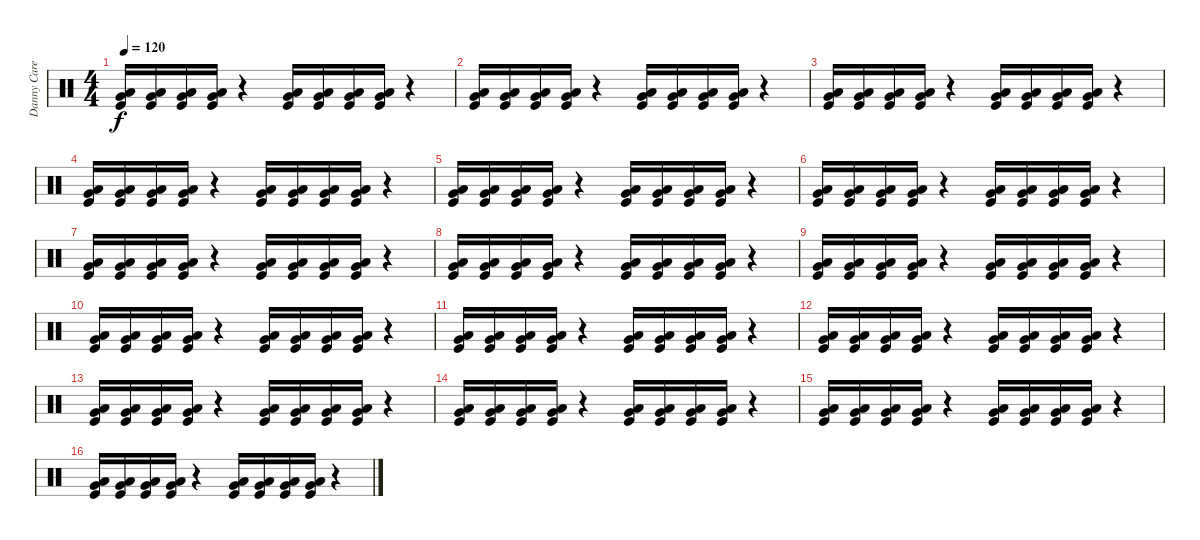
\track ("Danny Carey" "Danny Care") {instrument percussion}
\staff {score}
\articulation defaults
\ts (4 4)
\tempo 120
\clef neutral
\ks c
("Very Low Tom (hit)" "Low Floor Tom (hit)" "Kick (hit)").16{dy f} ("Very Low Tom (hit)" "Low Floor Tom (hit)" "Kick (hit)").16 ("Very Low Tom (hit)" "Low Floor Tom (hit)" "Kick (hit)").16 ("Very Low Tom (hit)" "Low Floor Tom (hit)" "Kick (hit)").16 r.4 ("Very Low Tom (hit)" "Low Floor Tom (hit)" "Kick (hit)").16 ("Very Low Tom (hit)" "Low Floor Tom (hit)" "Kick (hit)").16 ("Very Low Tom (hit)" "Low Floor Tom (hit)" "Kick (hit)").16 ("Very Low Tom (hit)" "Low Floor Tom (hit)" "Kick (hit)").16 r.4 |
("Very Low Tom (hit)" "Low Floor Tom (hit)" "Kick (hit)").16 ("Very Low Tom (hit)" "Low Floor Tom (hit)" "Kick (hit)").16 ("Very Low Tom (hit)" "Low Floor Tom (hit)" "Kick (hit)").16 ("Very Low Tom (hit)" "Low Floor Tom (hit)" "Kick (hit)").16 r.4 ("Very Low Tom (hit)" "Low Floor Tom (hit)" "Kick (hit)").16 ("Very Low Tom (hit)" "Low Floor Tom (hit)" "Kick (hit)").16 ("Very Low Tom (hit)" "Low Floor Tom (hit)" "Kick (hit)").16 ("Very Low Tom (hit)" "Low Floor Tom (hit)" "Kick (hit)").16 r.4 |
("Very Low Tom (hit)" "Low Floor Tom (hit)" "Kick (hit)").16{volume 6} ("Very Low Tom (hit)" "Low Floor Tom (hit)" "Kick (hit)").16 ("Very Low Tom (hit)" "Low Floor Tom (hit)" "Kick (hit)").16 ("Very Low Tom (hit)" "Low Floor Tom (hit)" "Kick (hit)").16 r.4 ("Very Low Tom (hit)" "Low Floor Tom (hit)" "Kick (hit)").16 ("Very Low Tom (hit)" "Low Floor Tom (hit)" "Kick (hit)").16 ("Very Low Tom (hit)" "Low Floor Tom (hit)" "Kick (hit)").16 ("Very Low Tom (hit)" "Low Floor Tom (hit)" "Kick (hit)").16 r.4 |
("Very Low Tom (hit)" "Low Floor Tom (hit)" "Kick (hit)").16 ("Very Low Tom (hit)" "Low Floor Tom (hit)" "Kick (hit)").16 ("Very Low Tom (hit)" "Low Floor Tom (hit)" "Kick (hit)").16 ("Very Low Tom (hit)" "Low Floor Tom (hit)" "Kick (hit)").16 r.4 ("Very Low Tom (hit)" "Low Floor Tom (hit)" "Kick (hit)").16 ("Very Low Tom (hit)" "Low Floor Tom (hit)" "Kick (hit)").16 ("Very Low Tom (hit)" "Low Floor Tom (hit)" "Kick (hit)").16 ("Very Low Tom (hit)" "Low Floor Tom (hit)" "Kick (hit)").16 r.4 |
("Very Low Tom (hit)" "Low Floor Tom (hit)" "Kick (hit)").16 ("Very Low Tom (hit)" "Low Floor Tom (hit)" "Kick (hit)").16 ("Very Low Tom (hit)" "Low Floor Tom (hit)" "Kick (hit)").16 ("Very Low Tom (hit)" "Low Floor Tom (hit)" "Kick (hit)").16 r.4 ("Very Low Tom (hit)" "Low Floor Tom (hit)" "Kick (hit)").16 ("Very Low Tom (hit)" "Low Floor Tom (hit)" "Kick (hit)").16 ("Very Low Tom (hit)" "Low Floor Tom (hit)" "Kick (hit)").16 ("Very Low Tom (hit)" "Low Floor Tom (hit)" "Kick (hit)").16 r.4 |
("Very Low Tom (hit)" "Low Floor Tom (hit)" "Kick (hit)").16 ("Very Low Tom (hit)" "Low Floor Tom (hit)" "Kick (hit)").16 ("Very Low Tom (hit)" "Low Floor Tom (hit)" "Kick (hit)").16 ("Very Low Tom (hit)" "Low Floor Tom (hit)" "Kick (hit)").16 r.4 ("Very Low Tom (hit)" "Low Floor Tom (hit)" "Kick (hit)").16 ("Very Low Tom (hit)" "Low Floor Tom (hit)" "Kick (hit)").16 ("Very Low Tom (hit)" "Low Floor Tom (hit)" "Kick (hit)").16 ("Very Low Tom (hit)" "Low Floor Tom (hit)" "Kick (hit)").16 r.4 |
("Very Low Tom (hit)" "Low Floor Tom (hit)" "Kick (hit)").16{volume 7} ("Very Low Tom (hit)" "Low Floor Tom (hit)" "Kick (hit)").16 ("Very Low Tom (hit)" "Low Floor Tom (hit)" "Kick (hit)").16 ("Very Low Tom (hit)" "Low Floor Tom (hit)" "Kick (hit)").16 r.4 ("Very Low Tom (hit)" "Low Floor Tom (hit)" "Kick (hit)").16 ("Very Low Tom (hit)" "Low Floor Tom (hit)" "Kick (hit)").16 ("Very Low Tom (hit)" "Low Floor Tom (hit)" "Kick (hit)").16 ("Very Low Tom (hit)" "Low Floor Tom (hit)" "Kick (hit)").16 r.4 |
("Very Low Tom (hit)" "Low Floor Tom (hit)" "Kick (hit)").16 ("Very Low Tom (hit)" "Low Floor Tom (hit)" "Kick (hit)").16 ("Very Low Tom (hit)" "Low Floor Tom (hit)" "Kick (hit)").16 ("Very Low Tom (hit)" "Low Floor Tom (hit)" "Kick (hit)").16 r.4 ("Very Low Tom (hit)" "Low Floor Tom (hit)" "Kick (hit)").16 ("Very Low Tom (hit)" "Low Floor Tom (hit)" "Kick (hit)").16 ("Very Low Tom (hit)" "Low Floor Tom (hit)" "Kick (hit)").16 ("Very Low Tom (hit)" "Low Floor Tom (hit)" "Kick (hit)").16 r.4 |
("Very Low Tom (hit)" "Low Floor Tom (hit)" "Kick (hit)").16 ("Very Low Tom (hit)" "Low Floor Tom (hit)" "Kick (hit)").16 ("Very Low Tom (hit)" "Low Floor Tom (hit)" "Kick (hit)").16 ("Very Low Tom (hit)" "Low Floor Tom (hit)" "Kick (hit)").16 r.4 ("Very Low Tom (hit)" "Low Floor Tom (hit)" "Kick (hit)").16 ("Very Low Tom (hit)" "Low Floor Tom (hit)" "Kick (hit)").16 ("Very Low Tom (hit)" "Low Floor Tom (hit)" "Kick (hit)").16 ("Very Low Tom (hit)" "Low Floor Tom (hit)" "Kick (hit)").16 r.4 |
("Very Low Tom (hit)" "Low Floor Tom (hit)" "Kick (hit)").16 ("Very Low Tom (hit)" "Low Floor Tom (hit)" "Kick (hit)").16 ("Very Low Tom (hit)" "Low Floor Tom (hit)" "Kick (hit)").16 ("Very Low Tom (hit)" "Low Floor Tom (hit)" "Kick (hit)").16 r.4 ("Very Low Tom (hit)" "Low Floor Tom (hit)" "Kick (hit)").16 ("Very Low Tom (hit)" "Low Floor Tom (hit)" "Kick (hit)").16 ("Very Low Tom (hit)" "Low Floor Tom (hit)" "Kick (hit)").16 ("Very Low Tom (hit)" "Low Floor Tom (hit)" "Kick (hit)").16 r.4 |
("Very Low Tom (hit)" "Low Floor Tom (hit)" "Kick (hit)").16{volume 8} ("Very Low Tom (hit)" "Low Floor Tom (hit)" "Kick (hit)").16 ("Very Low Tom (hit)" "Low Floor Tom (hit)" "Kick (hit)").16 ("Very Low Tom (hit)" "Low Floor Tom (hit)" "Kick (hit)").16 r.4 ("Very Low Tom (hit)" "Low Floor Tom (hit)" "Kick (hit)").16 ("Very Low Tom (hit)" "Low Floor Tom (hit)" "Kick (hit)").16 ("Very Low Tom (hit)" "Low Floor Tom (hit)" "Kick (hit)").16 ("Very Low Tom (hit)" "Low Floor Tom (hit)" "Kick (hit)").16 r.4 |
("Very Low Tom (hit)" "Low Floor Tom (hit)" "Kick (hit)").16 ("Very Low Tom (hit)" "Low Floor Tom (hit)" "Kick (hit)").16 ("Very Low Tom (hit)" "Low Floor Tom (hit)" "Kick (hit)").16 ("Very Low Tom (hit)" "Low Floor Tom (hit)" "Kick (hit)").16 r.4 ("Very Low Tom (hit)" "Low Floor Tom (hit)" "Kick (hit)").16 ("Very Low Tom (hit)" "Low Floor Tom (hit)" "Kick (hit)").16 ("Very Low Tom (hit)" "Low Floor Tom (hit)" "Kick (hit)").16 ("Very Low Tom (hit)" "Low Floor Tom (hit)" "Kick (hit)").16 r.4 |
("Very Low Tom (hit)" "Low Floor Tom (hit)" "Kick (hit)").16 ("Very Low Tom (hit)" "Low Floor Tom (hit)" "Kick (hit)").16 ("Very Low Tom (hit)" "Low Floor Tom (hit)" "Kick (hit)").16 ("Very Low Tom (hit)" "Low Floor Tom (hit)" "Kick (hit)").16 r.4 ("Very Low Tom (hit)" "Low Floor Tom (hit)" "Kick (hit)").16 ("Very Low Tom (hit)" "Low Floor Tom (hit)" "Kick (hit)").16 ("Very Low Tom (hit)" "Low Floor Tom (hit)" "Kick (hit)").16 ("Very Low Tom (hit)" "Low Floor Tom (hit)" "Kick (hit)").16 r.4 |
("Very Low Tom (hit)" "Low Floor Tom (hit)" "Kick (hit)").16 ("Very Low Tom (hit)" "Low Floor Tom (hit)" "Kick (hit)").16 ("Very Low Tom (hit)" "Low Floor Tom (hit)" "Kick (hit)").16 ("Very Low Tom (hit)" "Low Floor Tom (hit)" "Kick (hit)").16 r.4 ("Very Low Tom (hit)" "Low Floor Tom (hit)" "Kick (hit)").16 ("Very Low Tom (hit)" "Low Floor Tom (hit)" "Kick (hit)").16 ("Very Low Tom (hit)" "Low Floor Tom (hit)" "Kick (hit)").16 ("Very Low Tom (hit)" "Low Floor Tom (hit)" "Kick (hit)").16 r.4 |
("Very Low Tom (hit)" "Low Floor Tom (hit)" "Kick (hit)").16{volume 9} ("Very Low Tom (hit)" "Low Floor Tom (hit)" "Kick (hit)").16 ("Very Low Tom (hit)" "Low Floor Tom (hit)" "Kick (hit)").16 ("Very Low Tom (hit)" "Low Floor Tom (hit)" "Kick (hit)").16 r.4 ("Very Low Tom (hit)" "Low Floor Tom (hit)" "Kick (hit)").16 ("Very Low Tom (hit)" "Low Floor Tom (hit)" "Kick (hit)").16 ("Very Low Tom (hit)" "Low Floor Tom (hit)" "Kick (hit)").16 ("Very Low Tom (hit)" "Low Floor Tom (hit)" "Kick (hit)").16 r.4 |
("Very Low Tom (hit)" "Low Floor Tom (hit)" "Kick (hit)").16 ("Very Low Tom (hit)" "Low Floor Tom (hit)" "Kick (hit)").16 ("Very Low Tom (hit)" "Low Floor Tom (hit)" "Kick (hit)").16 ("Very Low Tom (hit)" "Low Floor Tom (hit)" "Kick (hit)").16 r.4 ("Very Low Tom (hit)" "Low Floor Tom (hit)" "Kick (hit)").16 ("Very Low Tom (hit)" "Low Floor Tom (hit)" "Kick (hit)").16 ("Very Low Tom (hit)" "Low Floor Tom (hit)" "Kick (hit)").16 ("Very Low Tom (hit)" "Low Floor Tom (hit)" "Kick (hit)").16 r.4
